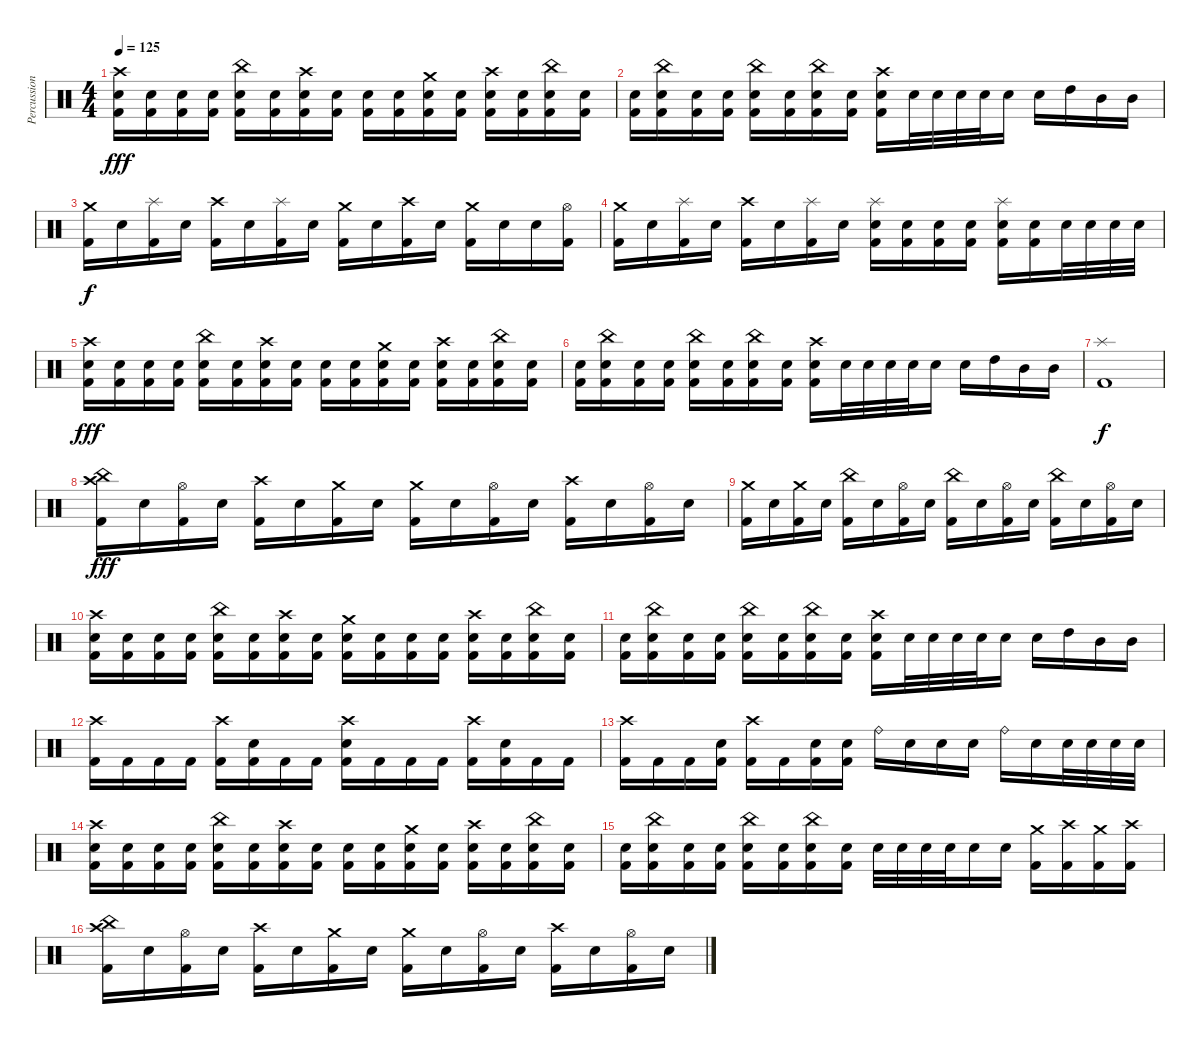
\track ("Percussion" "Percussion") {instrument percussion}
\staff {score}
\articulation defaults
\ts (4 4)
\tempo 125
\clef neutral
\ks c
("Crash high (hit)" "Electric Snare (hit)" "Kick (hit) 2").16{dy fff} ("Electric Snare (hit)" "Kick (hit) 2").16 ("Electric Snare (hit)" "Kick (hit) 2").16 ("Electric Snare (hit)" "Kick (hit) 2").16 ("China (hit)" "Electric Snare (hit)" "Kick (hit) 2").16 ("Electric Snare (hit)" "Kick (hit) 2").16 ("Crash high (hit)" "Electric Snare (hit)" "Kick (hit) 2").16 ("Electric Snare (hit)" "Kick (hit) 2").16 ("Electric Snare (hit)" "Kick (hit) 2").16 ("Electric Snare (hit)" "Kick (hit) 2").16 ("Crash medium (hit)" "Electric Snare (hit)" "Kick (hit) 2").16 ("Electric Snare (hit)" "Kick (hit) 2").16 ("Crash high (hit)" "Electric Snare (hit)" "Kick (hit) 2").16 ("Electric Snare (hit)" "Kick (hit) 2").16 ("China (hit)" "Electric Snare (hit)" "Kick (hit) 2").16 ("Electric Snare (hit)" "Kick (hit) 2").16 |
("Electric Snare (hit)" "Kick (hit) 2").16 ("China (hit)" "Electric Snare (hit)" "Kick (hit) 2").16 ("Electric Snare (hit)" "Kick (hit) 2").16 ("Electric Snare (hit)" "Kick (hit) 2").16 ("China (hit)" "Electric Snare (hit)" "Kick (hit) 2").16 ("Electric Snare (hit)" "Kick (hit) 2").16 ("China (hit)" "Electric Snare (hit)" "Kick (hit) 2").16 ("Electric Snare (hit)" "Kick (hit) 2").16 ("Crash high (hit)" "Electric Snare (hit)" "Kick (hit) 2").16 "Electric Snare (hit)".32 "Electric Snare (hit)".32 "Electric Snare (hit)".32 "Electric Snare (hit)".32 "Electric Snare (hit)".16 "Electric Snare (hit)".16 "High Tom (hit)".16 "Mid Tom (hit)".16 "Mid Tom (hit)".16 |
("Crash medium (hit)" "Kick (hit) 2").16{dy f} "Electric Snare (hit)".16 ("Splash (hit)" "Kick (hit) 2").16 "Electric Snare (hit)".16 ("Crash high (hit)" "Kick (hit) 2").16 "Electric Snare (hit)".16 ("Splash (hit)" "Kick (hit) 2").16 "Electric Snare (hit)".16 ("Crash medium (hit)" "Kick (hit) 2").16 "Electric Snare (hit)".16 ("Crash high (hit)" "Kick (hit) 2").16 "Electric Snare (hit)".16 ("Crash medium (hit)" "Kick (hit) 2").16 "Electric Snare (hit)".16 "Electric Snare (hit)".16 ("Hi-Hat (open)" "Kick (hit) 2").16 |
("Crash medium (hit)" "Kick (hit) 2").16 "Electric Snare (hit)".16 ("Splash (hit)" "Kick (hit) 2").16 "Electric Snare (hit)".16 ("Crash high (hit)" "Kick (hit) 2").16 "Electric Snare (hit)".16 ("Splash (hit)" "Kick (hit) 2").16 "Electric Snare (hit)".16 ("Splash (hit)" "Electric Snare (hit)" "Kick (hit) 2").16 ("Electric Snare (hit)" "Kick (hit) 2").16 ("Electric Snare (hit)" "Kick (hit) 2").16 ("Electric Snare (hit)" "Kick (hit) 2").16 ("Splash (hit)" "Electric Snare (hit)" "Kick (hit) 2").16 ("Electric Snare (hit)" "Kick (hit) 2").16 "Electric Snare (hit)".32 "Electric Snare (hit)".32 "Electric Snare (hit)".32 "Electric Snare (hit)".32 |
("Crash high (hit)" "Electric Snare (hit)" "Kick (hit) 2").16{dy fff} ("Electric Snare (hit)" "Kick (hit) 2").16 ("Electric Snare (hit)" "Kick (hit) 2").16 ("Electric Snare (hit)" "Kick (hit) 2").16 ("China (hit)" "Electric Snare (hit)" "Kick (hit) 2").16 ("Electric Snare (hit)" "Kick (hit) 2").16 ("Crash high (hit)" "Electric Snare (hit)" "Kick (hit) 2").16 ("Electric Snare (hit)" "Kick (hit) 2").16 ("Electric Snare (hit)" "Kick (hit) 2").16 ("Electric Snare (hit)" "Kick (hit) 2").16 ("Crash medium (hit)" "Electric Snare (hit)" "Kick (hit) 2").16 ("Electric Snare (hit)" "Kick (hit) 2").16 ("Crash high (hit)" "Electric Snare (hit)" "Kick (hit) 2").16 ("Electric Snare (hit)" "Kick (hit) 2").16 ("China (hit)" "Electric Snare (hit)" "Kick (hit) 2").16 ("Electric Snare (hit)" "Kick (hit) 2").16 |
("Electric Snare (hit)" "Kick (hit) 2").16 ("China (hit)" "Electric Snare (hit)" "Kick (hit) 2").16 ("Electric Snare (hit)" "Kick (hit) 2").16 ("Electric Snare (hit)" "Kick (hit) 2").16 ("China (hit)" "Electric Snare (hit)" "Kick (hit) 2").16 ("Electric Snare (hit)" "Kick (hit) 2").16 ("China (hit)" "Electric Snare (hit)" "Kick (hit) 2").16 ("Electric Snare (hit)" "Kick (hit) 2").16 ("Crash high (hit)" "Electric Snare (hit)" "Kick (hit) 2").16 "Electric Snare (hit)".32 "Electric Snare (hit)".32 "Electric Snare (hit)".32 "Electric Snare (hit)".32 "Electric Snare (hit)".16 "Electric Snare (hit)".16 "High Tom (hit)".16 "Mid Tom (hit)".16 "Mid Tom (hit)".16 |
("Splash (hit)" "Kick (hit) 2").1{dy f} |
("China (hit)" "Crash high (hit)" "Kick (hit) 2").16{dy fff} "Electric Snare (hit)".16 ("Hi-Hat (open)" "Kick (hit) 2").16 "Electric Snare (hit)".16 ("Crash high (hit)" "Kick (hit) 2").16 "Electric Snare (hit)".16 ("Crash medium (hit)" "Kick (hit) 2").16 "Electric Snare (hit)".16 ("Crash medium (hit)" "Kick (hit) 2").16 "Electric Snare (hit)".16 ("Hi-Hat (open)" "Kick (hit) 2").16 "Electric Snare (hit)".16 ("Crash high (hit)" "Kick (hit) 2").16 "Electric Snare (hit)".16 ("Hi-Hat (open)" "Kick (hit) 2").16 "Electric Snare (hit)".16 |
("Crash medium (hit)" "Kick (hit) 2").16 "Electric Snare (hit)".16 ("Crash medium (hit)" "Kick (hit) 2").16 "Electric Snare (hit)".16 ("China (hit)" "Kick (hit) 2").16 "Electric Snare (hit)".16 ("Hi-Hat (open)" "Kick (hit) 2").16 "Electric Snare (hit)".16 ("China (hit)" "Kick (hit) 2").16 "Electric Snare (hit)".16 ("Hi-Hat (open)" "Kick (hit) 2").16 "Electric Snare (hit)".16 ("China (hit)" "Kick (hit) 2").16 "Electric Snare (hit)".16 ("Hi-Hat (open)" "Kick (hit) 2").16 "Electric Snare (hit)".16 |
("Crash high (hit)" "Electric Snare (hit)" "Kick (hit) 2").16 ("Electric Snare (hit)" "Kick (hit) 2").16 ("Electric Snare (hit)" "Kick (hit) 2").16 ("Electric Snare (hit)" "Kick (hit) 2").16 ("China (hit)" "Electric Snare (hit)" "Kick (hit) 2").16 ("Electric Snare (hit)" "Kick (hit) 2").16 ("Crash high (hit)" "Electric Snare (hit)" "Kick (hit) 2").16 ("Electric Snare (hit)" "Kick (hit) 2").16 ("Crash medium (hit)" "Electric Snare (hit)" "Kick (hit) 2").16 ("Electric Snare (hit)" "Kick (hit) 2").16 ("Electric Snare (hit)" "Kick (hit) 2").16 ("Electric Snare (hit)" "Kick (hit) 2").16 ("Crash high (hit)" "Electric Snare (hit)" "Kick (hit) 2").16 ("Electric Snare (hit)" "Kick (hit) 2").16 ("China (hit)" "Electric Snare (hit)" "Kick (hit) 2").16 ("Electric Snare (hit)" "Kick (hit) 2").16 |
("Electric Snare (hit)" "Kick (hit) 2").16 ("China (hit)" "Electric Snare (hit)" "Kick (hit) 2").16 ("Electric Snare (hit)" "Kick (hit) 2").16 ("Electric Snare (hit)" "Kick (hit) 2").16 ("China (hit)" "Electric Snare (hit)" "Kick (hit) 2").16 ("Electric Snare (hit)" "Kick (hit) 2").16 ("China (hit)" "Electric Snare (hit)" "Kick (hit) 2").16 ("Electric Snare (hit)" "Kick (hit) 2").16 ("Crash high (hit)" "Electric Snare (hit)" "Kick (hit) 2").16 "Electric Snare (hit)".32 "Electric Snare (hit)".32 "Electric Snare (hit)".32 "Electric Snare (hit)".32 "Electric Snare (hit)".16 "Electric Snare (hit)".16 "High Tom (hit)".16 "Mid Tom (hit)".16 "Mid Tom (hit)".16 |
("Crash high (hit)" "Kick (hit) 2").16 "Kick (hit) 2".16 "Kick (hit) 2".16 "Kick (hit) 2".16 ("Crash high (hit)" "Kick (hit) 2").16 ("Electric Snare (hit)" "Kick (hit) 2").16 "Kick (hit) 2".16 "Kick (hit) 2".16 ("Crash high (hit)" "Electric Snare (hit)" "Kick (hit) 2").16 "Kick (hit) 2".16 "Kick (hit) 2".16 "Kick (hit) 2".16 ("Crash high (hit)" "Kick (hit) 2").16 ("Electric Snare (hit)" "Kick (hit) 2").16 "Kick (hit) 2".16 "Kick (hit) 2".16 |
("Crash high (hit)" "Kick (hit) 2").16 "Kick (hit) 2".16 "Kick (hit) 2".16 ("Electric Snare (hit)" "Kick (hit) 2").16 ("Crash high (hit)" "Kick (hit) 2").16 "Kick (hit) 2".16 ("Electric Snare (hit)" "Kick (hit) 2").16 ("Electric Snare (hit)" "Kick (hit) 2").16 "Ride (bell)".16 "Electric Snare (hit)".16 "Electric Snare (hit)".16 "Electric Snare (hit)".16 "Ride (bell)".16 "Electric Snare (hit)".16 "Electric Snare (hit)".32 "Electric Snare (hit)".32 "Electric Snare (hit)".32 "Electric Snare (hit)".32 |
("Crash high (hit)" "Electric Snare (hit)" "Kick (hit) 2").16 ("Electric Snare (hit)" "Kick (hit) 2").16 ("Electric Snare (hit)" "Kick (hit) 2").16 ("Electric Snare (hit)" "Kick (hit) 2").16 ("China (hit)" "Electric Snare (hit)" "Kick (hit) 2").16 ("Electric Snare (hit)" "Kick (hit) 2").16 ("Crash high (hit)" "Electric Snare (hit)" "Kick (hit) 2").16 ("Electric Snare (hit)" "Kick (hit) 2").16 ("Electric Snare (hit)" "Kick (hit) 2").16 ("Electric Snare (hit)" "Kick (hit) 2").16 ("Crash medium (hit)" "Electric Snare (hit)" "Kick (hit) 2").16 ("Electric Snare (hit)" "Kick (hit) 2").16 ("Crash high (hit)" "Electric Snare (hit)" "Kick (hit) 2").16 ("Electric Snare (hit)" "Kick (hit) 2").16 ("China (hit)" "Electric Snare (hit)" "Kick (hit) 2").16 ("Electric Snare (hit)" "Kick (hit) 2").16 |
("Electric Snare (hit)" "Kick (hit) 2").16 ("China (hit)" "Electric Snare (hit)" "Kick (hit) 2").16 ("Electric Snare (hit)" "Kick (hit) 2").16 ("Electric Snare (hit)" "Kick (hit) 2").16 ("China (hit)" "Electric Snare (hit)" "Kick (hit) 2").16 ("Electric Snare (hit)" "Kick (hit) 2").16 ("China (hit)" "Electric Snare (hit)" "Kick (hit) 2").16 ("Electric Snare (hit)" "Kick (hit) 2").16 "Electric Snare (hit)".32 "Electric Snare (hit)".32 "Electric Snare (hit)".32 "Electric Snare (hit)".32 "Electric Snare (hit)".16 "Electric Snare (hit)".16 ("Crash medium (hit)" "Kick (hit) 2").16 ("Crash high (hit)" "Kick (hit) 2").16 ("Crash medium (hit)" "Kick (hit) 2").16 ("Crash high (hit)" "Kick (hit) 2").16 |
("China (hit)" "Crash high (hit)" "Kick (hit) 2").16 "Electric Snare (hit)".16 ("Hi-Hat (open)" "Kick (hit) 2").16 "Electric Snare (hit)".16 ("Crash high (hit)" "Kick (hit) 2").16 "Electric Snare (hit)".16 ("Crash medium (hit)" "Kick (hit) 2").16 "Electric Snare (hit)".16 ("Crash medium (hit)" "Kick (hit) 2").16 "Electric Snare (hit)".16 ("Hi-Hat (open)" "Kick (hit) 2").16 "Electric Snare (hit)".16 ("Crash high (hit)" "Kick (hit) 2").16 "Electric Snare (hit)".16 ("Hi-Hat (open)" "Kick (hit) 2").16 "Electric Snare (hit)".16
